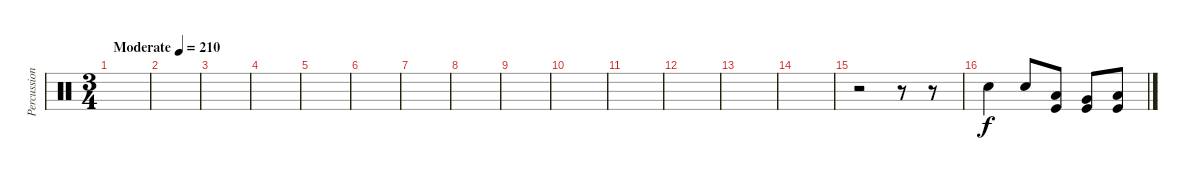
\track ("Percussion" "Percussion") {instrument percussion}
\staff
\articulation defaults
\ts (3 4)
\tempo (210 "Moderate")
\clef neutral
\ks c
|
|
|
|
|
|
|
|
|
|
|
|
|
|
r.2 r.8 r.8 |
"Snare (hit) 2".4 "Snare (hit) 2".8 ("Low Tom (hit)" "Kick (hit)").8 ("Very Low Tom (hit)" "Kick (hit)").8 ("Low Floor Tom (hit)" "Kick (hit)").8
